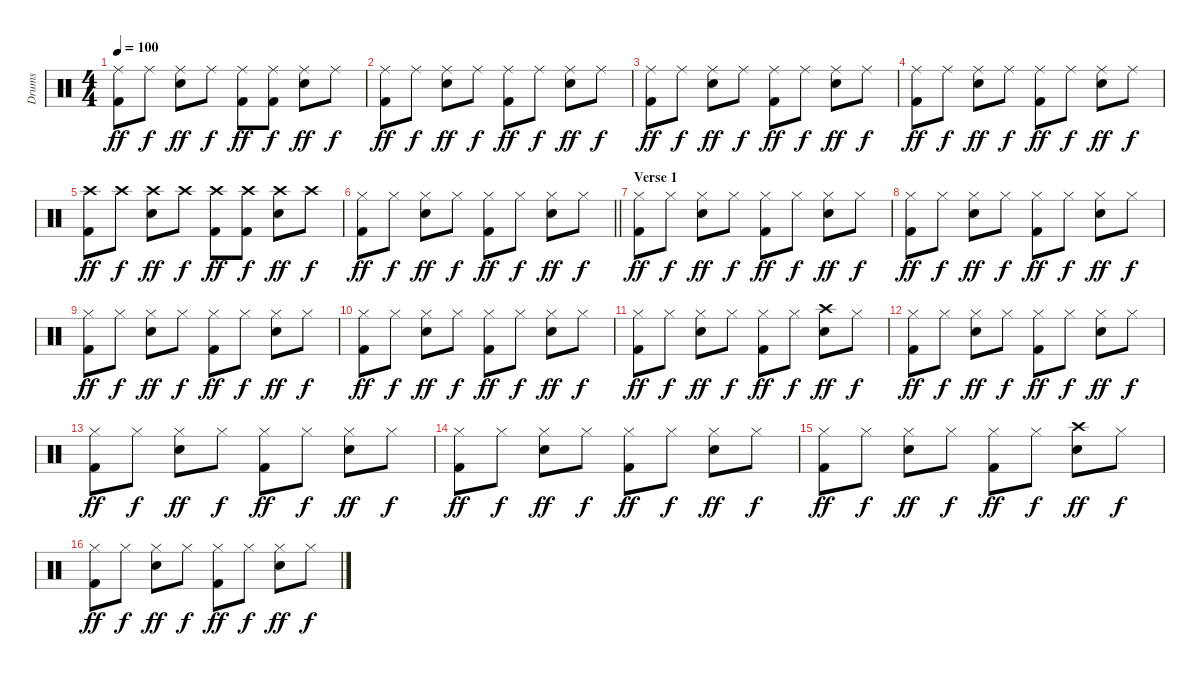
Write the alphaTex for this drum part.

\track ("Drums" "Drums") {instrument percussion}
\staff {score}
\articulation defaults
\ts (4 4)
\tempo 100
\clef neutral
\ks c
("Ride (middle)" "Kick (hit) 2").8{dy ff} "Ride (middle)".8{dy f} ("Ride (middle)" "Snare (hit) 2").8{dy ff} "Ride (middle)".8{dy f} ("Ride (middle)" "Kick (hit) 2").8{dy ff} ("Ride (middle)" "Kick (hit) 2").8{dy f} ("Ride (middle)" "Snare (hit) 2").8{dy ff} "Ride (middle)".8{dy f} |
("Ride (middle)" "Kick (hit) 2").8{dy ff} "Ride (middle)".8{dy f} ("Ride (middle)" "Snare (hit) 2").8{dy ff} "Ride (middle)".8{dy f} ("Ride (middle)" "Kick (hit) 2").8{dy ff} "Ride (middle)".8{dy f} ("Ride (middle)" "Snare (hit) 2").8{dy ff} "Ride (middle)".8{dy f} |
("Ride (middle)" "Kick (hit) 2").8{dy ff} "Ride (middle)".8{dy f} ("Ride (middle)" "Snare (hit) 2").8{dy ff} "Ride (middle)".8{dy f} ("Ride (middle)" "Kick (hit) 2").8{dy ff} "Ride (middle)".8{dy f} ("Ride (middle)" "Snare (hit) 2").8{dy ff} "Ride (middle)".8{dy f} |
("Ride (middle)" "Kick (hit) 2").8{dy ff} "Ride (middle)".8{dy f} ("Ride (middle)" "Snare (hit) 2").8{dy ff} "Ride (middle)".8{dy f} ("Ride (middle)" "Kick (hit) 2").8{dy ff} "Ride (middle)".8{dy f} ("Ride (middle)" "Snare (hit) 2").8{dy ff} "Ride (middle)".8{dy f} |
("Crash high (hit)" "Kick (hit) 2").8{dy ff} "Crash high (hit)".8{dy f} ("Crash high (hit)" "Snare (hit) 2").8{dy ff} "Crash high (hit)".8{dy f} ("Crash high (hit)" "Kick (hit) 2").8{dy ff} ("Crash high (hit)" "Kick (hit) 2").8{dy f} ("Crash high (hit)" "Snare (hit) 2").8{dy ff} "Crash high (hit)".8{dy f} |
\barLineRight lightlight
("Hi-Hat (closed)" "Kick (hit) 2").8{dy ff} "Hi-Hat (closed)".8{dy f} ("Hi-Hat (closed)" "Snare (hit) 2").8{dy ff} "Hi-Hat (closed)".8{dy f} ("Hi-Hat (closed)" "Kick (hit) 2").8{dy ff} "Hi-Hat (closed)".8{dy f} ("Hi-Hat (closed)" "Snare (hit) 2").8{dy ff} "Hi-Hat (closed)".8{dy f} |
\section ("" "Verse 1")
("Hi-Hat (closed)" "Kick (hit) 2").8{dy ff} "Hi-Hat (closed)".8{dy f} ("Hi-Hat (closed)" "Snare (hit) 2").8{dy ff} "Hi-Hat (closed)".8{dy f} ("Hi-Hat (closed)" "Kick (hit) 2").8{dy ff} "Hi-Hat (closed)".8{dy f} ("Hi-Hat (closed)" "Snare (hit) 2").8{dy ff} "Hi-Hat (closed)".8{dy f} |
("Hi-Hat (closed)" "Kick (hit) 2").8{dy ff} "Hi-Hat (closed)".8{dy f} ("Hi-Hat (closed)" "Snare (hit) 2").8{dy ff} "Hi-Hat (closed)".8{dy f} ("Hi-Hat (closed)" "Kick (hit) 2").8{dy ff} "Hi-Hat (closed)".8{dy f} ("Hi-Hat (closed)" "Snare (hit) 2").8{dy ff} "Hi-Hat (closed)".8{dy f} |
("Hi-Hat (closed)" "Kick (hit) 2").8{dy ff} "Hi-Hat (closed)".8{dy f} ("Hi-Hat (closed)" "Snare (hit) 2").8{dy ff} "Hi-Hat (closed)".8{dy f} ("Hi-Hat (closed)" "Kick (hit) 2").8{dy ff} "Hi-Hat (closed)".8{dy f} ("Hi-Hat (closed)" "Snare (hit) 2").8{dy ff} "Hi-Hat (closed)".8{dy f} |
("Hi-Hat (closed)" "Kick (hit) 2").8{dy ff} "Hi-Hat (closed)".8{dy f} ("Hi-Hat (closed)" "Snare (hit) 2").8{dy ff} "Hi-Hat (closed)".8{dy f} ("Hi-Hat (closed)" "Kick (hit) 2").8{dy ff} "Hi-Hat (closed)".8{dy f} ("Hi-Hat (closed)" "Snare (hit) 2").8{dy ff} "Hi-Hat (closed)".8{dy f} |
("Hi-Hat (closed)" "Kick (hit) 2").8{dy ff} "Hi-Hat (closed)".8{dy f} ("Hi-Hat (closed)" "Snare (hit) 2").8{dy ff} "Hi-Hat (closed)".8{dy f} ("Hi-Hat (closed)" "Kick (hit) 2").8{dy ff} "Hi-Hat (closed)".8{dy f} ("Crash high (hit)" "Snare (hit) 2").8{dy ff} "Hi-Hat (closed)".8{dy f} |
("Hi-Hat (closed)" "Kick (hit) 2").8{dy ff} "Hi-Hat (closed)".8{dy f} ("Hi-Hat (closed)" "Snare (hit) 2").8{dy ff} "Hi-Hat (closed)".8{dy f} ("Hi-Hat (closed)" "Kick (hit) 2").8{dy ff} "Hi-Hat (closed)".8{dy f} ("Hi-Hat (closed)" "Snare (hit) 2").8{dy ff} "Hi-Hat (closed)".8{dy f} |
("Hi-Hat (closed)" "Kick (hit) 2").8{dy ff} "Hi-Hat (closed)".8{dy f} ("Hi-Hat (closed)" "Snare (hit) 2").8{dy ff} "Hi-Hat (closed)".8{dy f} ("Hi-Hat (closed)" "Kick (hit) 2").8{dy ff} "Hi-Hat (closed)".8{dy f} ("Hi-Hat (closed)" "Snare (hit) 2").8{dy ff} "Hi-Hat (closed)".8{dy f} |
("Hi-Hat (closed)" "Kick (hit) 2").8{dy ff} "Hi-Hat (closed)".8{dy f} ("Hi-Hat (closed)" "Snare (hit) 2").8{dy ff} "Hi-Hat (closed)".8{dy f} ("Hi-Hat (closed)" "Kick (hit) 2").8{dy ff} "Hi-Hat (closed)".8{dy f} ("Hi-Hat (closed)" "Snare (hit) 2").8{dy ff} "Hi-Hat (closed)".8{dy f} |
("Hi-Hat (closed)" "Kick (hit) 2").8{dy ff} "Hi-Hat (closed)".8{dy f} ("Hi-Hat (closed)" "Snare (hit) 2").8{dy ff} "Hi-Hat (closed)".8{dy f} ("Hi-Hat (closed)" "Kick (hit) 2").8{dy ff} "Hi-Hat (closed)".8{dy f} ("Crash high (hit)" "Snare (hit) 2").8{dy ff} "Hi-Hat (closed)".8{dy f} |
("Hi-Hat (closed)" "Kick (hit) 2").8{dy ff} "Hi-Hat (closed)".8{dy f} ("Hi-Hat (closed)" "Snare (hit) 2").8{dy ff} "Hi-Hat (closed)".8{dy f} ("Hi-Hat (closed)" "Kick (hit) 2").8{dy ff} "Hi-Hat (closed)".8{dy f} ("Hi-Hat (closed)" "Snare (hit) 2").8{dy ff} "Hi-Hat (closed)".8{dy f}
